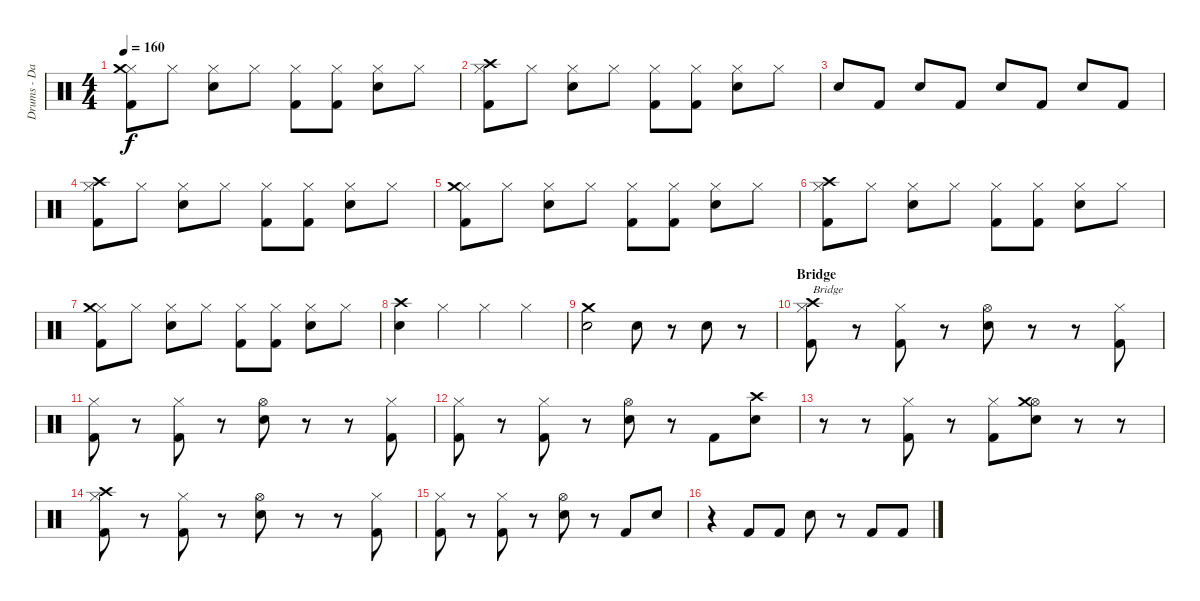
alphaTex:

\track ("Drums - Daniel Zimmermann" "Drums - Da") {instrument percussion}
\staff {score}
\articulation defaults
\ts (4 4)
\tempo 160
\clef neutral
\ks c
("Hi-Hat (closed)" "Kick (hit) 2" "Crash medium (hit)").8{dy f} "Hi-Hat (closed)".8 ("Hi-Hat (closed)" "Snare (hit) 2").8 "Hi-Hat (closed)".8 ("Hi-Hat (closed)" "Kick (hit) 2").8 ("Hi-Hat (closed)" "Kick (hit) 2").8 ("Hi-Hat (closed)" "Snare (hit) 2").8 "Hi-Hat (closed)".8 |
("Hi-Hat (closed)" "Kick (hit) 2" "Crash high (hit)").8 "Hi-Hat (closed)".8 ("Hi-Hat (closed)" "Snare (hit) 2").8 "Hi-Hat (closed)".8 ("Hi-Hat (closed)" "Kick (hit) 2").8 ("Hi-Hat (closed)" "Kick (hit) 2").8 ("Hi-Hat (closed)" "Snare (hit) 2").8 "Hi-Hat (closed)".8 |
"Snare (hit) 2".8 "Kick (hit) 2".8 "Snare (hit) 2".8 "Kick (hit) 2".8 "Snare (hit) 2".8 "Kick (hit) 2".8 "Snare (hit) 2".8 "Kick (hit) 2".8 |
("Hi-Hat (closed)" "Kick (hit) 2" "Crash high (hit)").8 "Hi-Hat (closed)".8 ("Hi-Hat (closed)" "Snare (hit) 2").8 "Hi-Hat (closed)".8 ("Hi-Hat (closed)" "Kick (hit) 2").8 ("Hi-Hat (closed)" "Kick (hit) 2").8 ("Hi-Hat (closed)" "Snare (hit) 2").8 "Hi-Hat (closed)".8 |
("Hi-Hat (closed)" "Kick (hit) 2" "Crash medium (hit)").8 "Hi-Hat (closed)".8 ("Hi-Hat (closed)" "Snare (hit) 2").8 "Hi-Hat (closed)".8 ("Hi-Hat (closed)" "Kick (hit) 2").8 ("Hi-Hat (closed)" "Kick (hit) 2").8 ("Hi-Hat (closed)" "Snare (hit) 2").8 "Hi-Hat (closed)".8 |
("Hi-Hat (closed)" "Kick (hit) 2" "Crash high (hit)").8 "Hi-Hat (closed)".8 ("Hi-Hat (closed)" "Snare (hit) 2").8 "Hi-Hat (closed)".8 ("Hi-Hat (closed)" "Kick (hit) 2").8 ("Hi-Hat (closed)" "Kick (hit) 2").8 ("Hi-Hat (closed)" "Snare (hit) 2").8 "Hi-Hat (closed)".8 |
("Hi-Hat (closed)" "Kick (hit) 2" "Crash medium (hit)").8 "Hi-Hat (closed)".8 ("Hi-Hat (closed)" "Snare (hit) 2").8 "Hi-Hat (closed)".8 ("Hi-Hat (closed)" "Kick (hit) 2").8 ("Hi-Hat (closed)" "Kick (hit) 2").8 ("Hi-Hat (closed)" "Snare (hit) 2").8 "Hi-Hat (closed)".8 |
("Snare (hit) 2" "Crash high (hit)").4 "Hi-Hat (closed)".4 "Hi-Hat (closed)".4 "Hi-Hat (closed)".4 |
("Snare (hit) 2" "Crash medium (hit)").2 "Snare (hit) 2".8 r.8 "Snare (hit) 2".8 r.8 |
\section ("" "Bridge")
("Hi-Hat (closed)" "Kick (hit) 2" "Crash high (hit)").8{txt "Bridge"} r.8 ("Hi-Hat (closed)" "Kick (hit) 2").8 r.8 ("Hi-Hat (open)" "Snare (hit) 2").8 r.8 r.8 ("Hi-Hat (closed)" "Kick (hit) 2").8 |
("Hi-Hat (closed)" "Kick (hit) 2").8 r.8 ("Hi-Hat (closed)" "Kick (hit) 2").8 r.8 ("Hi-Hat (open)" "Snare (hit) 2").8 r.8 r.8 ("Hi-Hat (closed)" "Kick (hit) 2").8 |
("Hi-Hat (closed)" "Kick (hit) 2").8 r.8 ("Hi-Hat (closed)" "Kick (hit) 2").8 r.8 ("Hi-Hat (open)" "Snare (hit) 2").8 r.8 "Kick (hit) 2".8 ("Snare (hit) 2" "Crash high (hit)").8 |
r.8 r.8 ("Hi-Hat (closed)" "Kick (hit) 2").8 r.8 ("Hi-Hat (closed)" "Kick (hit) 2").8 ("Hi-Hat (open)" "Snare (hit) 2" "Crash medium (hit)").8 r.8 r.8 |
("Hi-Hat (closed)" "Kick (hit) 2" "Crash high (hit)").8 r.8 ("Hi-Hat (closed)" "Kick (hit) 2").8 r.8 ("Hi-Hat (open)" "Snare (hit) 2").8 r.8 r.8 ("Hi-Hat (closed)" "Kick (hit) 2").8 |
("Hi-Hat (closed)" "Kick (hit) 2").8 r.8 ("Hi-Hat (closed)" "Kick (hit) 2").8 r.8 ("Hi-Hat (open)" "Snare (hit) 2").8 r.8 "Kick (hit) 2".8 "Snare (hit) 2".8 |
r.4 "Kick (hit) 2".8 "Kick (hit) 2".8 "Snare (hit) 2".8 r.8 "Kick (hit) 2".8 "Kick (hit) 2".8
